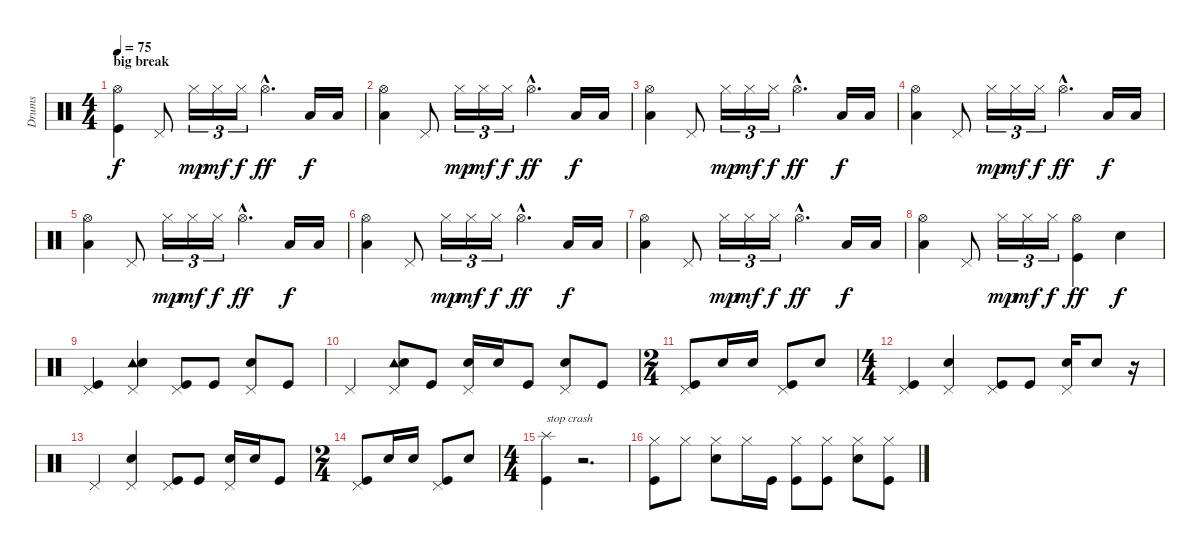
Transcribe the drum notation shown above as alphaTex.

\track ("Drums" "Drums") {instrument percussion}
\staff {score}
\articulation defaults
\ts (4 4)
\section ("" "big break")
\tempo 75
\clef neutral
\ks aminor
("Hi-Hat (open)" "Kick (hit)").4{dy f} "Pedal Hi-Hat (hit)".8 "Hi-Hat (closed)".16{tu (3 2) dy mp} "Hi-Hat (closed)".16{tu (3 2) dy mf} "Hi-Hat (closed)".16{tu (3 2) dy f} "Hi-Hat (open)"{hac}.4{d dy ff} "Low Floor Tom (hit)".16{dy f} "Low Floor Tom (hit)".16 |
("Hi-Hat (open)" "Low Floor Tom (hit)").4 "Pedal Hi-Hat (hit)".8 "Hi-Hat (closed)".16{tu (3 2) dy mp} "Hi-Hat (closed)".16{tu (3 2) dy mf} "Hi-Hat (closed)".16{tu (3 2) dy f} "Hi-Hat (open)"{hac}.4{d dy ff} "Low Floor Tom (hit)".16{dy f} "Low Floor Tom (hit)".16 |
("Hi-Hat (open)" "Low Floor Tom (hit)").4 "Pedal Hi-Hat (hit)".8 "Hi-Hat (closed)".16{tu (3 2) dy mp} "Hi-Hat (closed)".16{tu (3 2) dy mf} "Hi-Hat (closed)".16{tu (3 2) dy f} "Hi-Hat (open)"{hac}.4{d dy ff} "Low Floor Tom (hit)".16{dy f} "Low Floor Tom (hit)".16 |
("Hi-Hat (open)" "Low Floor Tom (hit)").4 "Pedal Hi-Hat (hit)".8 "Hi-Hat (closed)".16{tu (3 2) dy mp} "Hi-Hat (closed)".16{tu (3 2) dy mf} "Hi-Hat (closed)".16{tu (3 2) dy f} "Hi-Hat (open)"{hac}.4{d dy ff} "Low Floor Tom (hit)".16{dy f} "Low Floor Tom (hit)".16 |
("Hi-Hat (open)" "Low Floor Tom (hit)").4 "Pedal Hi-Hat (hit)".8 "Hi-Hat (closed)".16{tu (3 2) dy mp} "Hi-Hat (closed)".16{tu (3 2) dy mf} "Hi-Hat (closed)".16{tu (3 2) dy f} "Hi-Hat (open)"{hac}.4{d dy ff} "Low Floor Tom (hit)".16{dy f} "Low Floor Tom (hit)".16 |
("Hi-Hat (open)" "Low Floor Tom (hit)").4 "Pedal Hi-Hat (hit)".8 "Hi-Hat (closed)".16{tu (3 2) dy mp} "Hi-Hat (closed)".16{tu (3 2) dy mf} "Hi-Hat (closed)".16{tu (3 2) dy f} "Hi-Hat (open)"{hac}.4{d dy ff} "Low Floor Tom (hit)".16{dy f} "Low Floor Tom (hit)".16 |
("Hi-Hat (open)" "Low Floor Tom (hit)").4 "Pedal Hi-Hat (hit)".8 "Hi-Hat (closed)".16{tu (3 2) dy mp} "Hi-Hat (closed)".16{tu (3 2) dy mf} "Hi-Hat (closed)".16{tu (3 2) dy f} "Hi-Hat (open)"{hac}.4{d dy ff} "Low Floor Tom (hit)".16{dy f} "Low Floor Tom (hit)".16 |
("Hi-Hat (open)" "Low Floor Tom (hit)").4 "Pedal Hi-Hat (hit)".8 "Hi-Hat (closed)".16{tu (3 2) dy mp} "Hi-Hat (closed)".16{tu (3 2) dy mf} "Hi-Hat (closed)".16{tu (3 2) dy f} ("Hi-Hat (open)" "Kick (hit)").4{dy ff} "Snare (hit) 2".4{dy f} |
("Pedal Hi-Hat (hit)" "Kick (hit)").4 ("Pedal Hi-Hat (hit)" "Tambourine (hit)" "Snare (hit) 2").4 ("Pedal Hi-Hat (hit)" "Kick (hit)").8 "Kick (hit)".8 ("Pedal Hi-Hat (hit)" "Snare (hit) 2").8 "Kick (hit)".8 |
"Pedal Hi-Hat (hit)".4 ("Pedal Hi-Hat (hit)" "Tambourine (hit)" "Snare (hit) 2").8 "Kick (hit)".8 ("Pedal Hi-Hat (hit)" "Snare (hit) 2").16 "Snare (hit) 2".16 "Kick (hit)".8 ("Pedal Hi-Hat (hit)" "Snare (hit) 2").8 "Kick (hit)".8 |
\ts (2 4)
("Pedal Hi-Hat (hit)" "Kick (hit)").8 "Snare (hit) 2".16 "Snare (hit) 2".16 ("Pedal Hi-Hat (hit)" "Kick (hit)").8 "Snare (hit) 2".8 |
\ts (4 4)
("Pedal Hi-Hat (hit)" "Kick (hit)").4 ("Pedal Hi-Hat (hit)" "Snare (hit) 2").4 ("Pedal Hi-Hat (hit)" "Kick (hit)").8 "Kick (hit)".8 ("Pedal Hi-Hat (hit)" "Snare (hit) 2").16 "Snare (hit) 2".8 r.16 |
"Pedal Hi-Hat (hit)".4 ("Pedal Hi-Hat (hit)" "Snare (hit) 2").4 ("Pedal Hi-Hat (hit)" "Kick (hit)").8 "Kick (hit)".8 ("Pedal Hi-Hat (hit)" "Snare (hit) 2").16 "Snare (hit) 2".16 "Kick (hit)".8 |
\ts (2 4)
("Pedal Hi-Hat (hit)" "Kick (hit)").8 "Snare (hit) 2".16 "Snare (hit) 2".16 ("Pedal Hi-Hat (hit)" "Kick (hit)").8 "Snare (hit) 2".8 |
\ts (4 4)
("Splash (hit)" "Kick (hit)").4{txt "stop crash"} r.2{d} |
("Hi-Hat (closed)" "Kick (hit)").8 "Hi-Hat (closed)".8 ("Hi-Hat (closed)" "Snare (hit) 2").8 "Hi-Hat (closed)".16 "Kick (hit)".16 ("Hi-Hat (closed)" "Kick (hit)").8 ("Hi-Hat (closed)" "Kick (hit)").8 ("Hi-Hat (closed)" "Snare (hit) 2").8 ("Hi-Hat (closed)" "Kick (hit)").8
